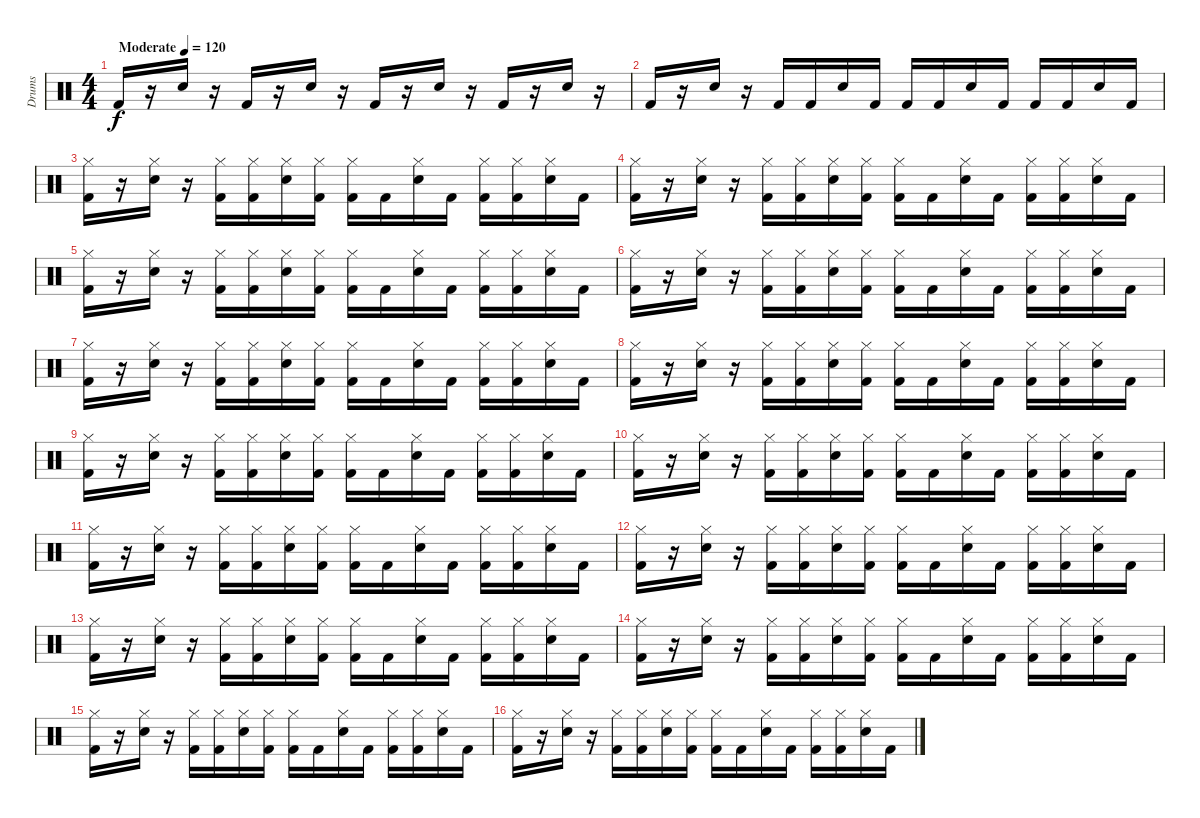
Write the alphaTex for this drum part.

\track ("Drums" "Drums") {instrument percussion}
\staff {score}
\articulation defaults
\ts (4 4)
\tempo (120 "Moderate")
\clef neutral
\ks c "Kick (hit) 2".16{dy f}
r.16 "Snare (hit) 2".16 r.16 "Kick (hit) 2".16 r.16 "Snare (hit) 2".16 r.16 "Kick (hit) 2".16 r.16 "Snare (hit) 2".16 r.16 "Kick (hit) 2".16 r.16 "Snare (hit) 2".16 r.16 |
"Kick (hit) 2".16 r.16 "Snare (hit) 2".16 r.16 "Kick (hit) 2".16 "Kick (hit) 2".16 "Snare (hit) 2".16 "Kick (hit) 2".16 "Kick (hit) 2".16 "Kick (hit) 2".16 "Snare (hit) 2".16 "Kick (hit) 2".16 "Kick (hit) 2".16 "Kick (hit) 2".16 "Snare (hit) 2".16 "Kick (hit) 2".16 |
("Hi-Hat (closed)" "Kick (hit) 2").16 r.16 ("Hi-Hat (closed)" "Snare (hit) 2").16 r.16 ("Hi-Hat (closed)" "Kick (hit) 2").16 ("Hi-Hat (closed)" "Kick (hit) 2").16 ("Hi-Hat (closed)" "Snare (hit) 2").16 ("Hi-Hat (closed)" "Kick (hit) 2").16 ("Hi-Hat (closed)" "Kick (hit) 2").16 "Kick (hit) 2".16 ("Hi-Hat (closed)" "Snare (hit) 2").16 "Kick (hit) 2".16 ("Hi-Hat (closed)" "Kick (hit) 2").16 ("Hi-Hat (closed)" "Kick (hit) 2").16 ("Hi-Hat (closed)" "Snare (hit) 2").16 "Kick (hit) 2".16 |
("Hi-Hat (closed)" "Kick (hit) 2").16 r.16 ("Hi-Hat (closed)" "Snare (hit) 2").16 r.16 ("Hi-Hat (closed)" "Kick (hit) 2").16 ("Hi-Hat (closed)" "Kick (hit) 2").16 ("Hi-Hat (closed)" "Snare (hit) 2").16 ("Hi-Hat (closed)" "Kick (hit) 2").16 ("Hi-Hat (closed)" "Kick (hit) 2").16 "Kick (hit) 2".16 ("Hi-Hat (closed)" "Snare (hit) 2").16 "Kick (hit) 2".16 ("Hi-Hat (closed)" "Kick (hit) 2").16 ("Hi-Hat (closed)" "Kick (hit) 2").16 ("Hi-Hat (closed)" "Snare (hit) 2").16 "Kick (hit) 2".16 |
("Hi-Hat (closed)" "Kick (hit) 2").16 r.16 ("Hi-Hat (closed)" "Snare (hit) 2").16 r.16 ("Hi-Hat (closed)" "Kick (hit) 2").16 ("Hi-Hat (closed)" "Kick (hit) 2").16 ("Hi-Hat (closed)" "Snare (hit) 2").16 ("Hi-Hat (closed)" "Kick (hit) 2").16 ("Hi-Hat (closed)" "Kick (hit) 2").16 "Kick (hit) 2".16 ("Hi-Hat (closed)" "Snare (hit) 2").16 "Kick (hit) 2".16 ("Hi-Hat (closed)" "Kick (hit) 2").16 ("Hi-Hat (closed)" "Kick (hit) 2").16 ("Hi-Hat (closed)" "Snare (hit) 2").16 "Kick (hit) 2".16 |
("Hi-Hat (closed)" "Kick (hit) 2").16 r.16 ("Hi-Hat (closed)" "Snare (hit) 2").16 r.16 ("Hi-Hat (closed)" "Kick (hit) 2").16 ("Hi-Hat (closed)" "Kick (hit) 2").16 ("Hi-Hat (closed)" "Snare (hit) 2").16 ("Hi-Hat (closed)" "Kick (hit) 2").16 ("Hi-Hat (closed)" "Kick (hit) 2").16 "Kick (hit) 2".16 ("Hi-Hat (closed)" "Snare (hit) 2").16 "Kick (hit) 2".16 ("Hi-Hat (closed)" "Kick (hit) 2").16 ("Hi-Hat (closed)" "Kick (hit) 2").16 ("Hi-Hat (closed)" "Snare (hit) 2").16 "Kick (hit) 2".16 |
("Hi-Hat (closed)" "Kick (hit) 2").16 r.16 ("Hi-Hat (closed)" "Snare (hit) 2").16 r.16 ("Hi-Hat (closed)" "Kick (hit) 2").16 ("Hi-Hat (closed)" "Kick (hit) 2").16 ("Hi-Hat (closed)" "Snare (hit) 2").16 ("Hi-Hat (closed)" "Kick (hit) 2").16 ("Hi-Hat (closed)" "Kick (hit) 2").16 "Kick (hit) 2".16 ("Hi-Hat (closed)" "Snare (hit) 2").16 "Kick (hit) 2".16 ("Hi-Hat (closed)" "Kick (hit) 2").16 ("Hi-Hat (closed)" "Kick (hit) 2").16 ("Hi-Hat (closed)" "Snare (hit) 2").16 "Kick (hit) 2".16 |
("Hi-Hat (closed)" "Kick (hit) 2").16 r.16 ("Hi-Hat (closed)" "Snare (hit) 2").16 r.16 ("Hi-Hat (closed)" "Kick (hit) 2").16 ("Hi-Hat (closed)" "Kick (hit) 2").16 ("Hi-Hat (closed)" "Snare (hit) 2").16 ("Hi-Hat (closed)" "Kick (hit) 2").16 ("Hi-Hat (closed)" "Kick (hit) 2").16 "Kick (hit) 2".16 ("Hi-Hat (closed)" "Snare (hit) 2").16 "Kick (hit) 2".16 ("Hi-Hat (closed)" "Kick (hit) 2").16 ("Hi-Hat (closed)" "Kick (hit) 2").16 ("Hi-Hat (closed)" "Snare (hit) 2").16 "Kick (hit) 2".16 |
("Hi-Hat (closed)" "Kick (hit) 2").16 r.16 ("Hi-Hat (closed)" "Snare (hit) 2").16 r.16 ("Hi-Hat (closed)" "Kick (hit) 2").16 ("Hi-Hat (closed)" "Kick (hit) 2").16 ("Hi-Hat (closed)" "Snare (hit) 2").16 ("Hi-Hat (closed)" "Kick (hit) 2").16 ("Hi-Hat (closed)" "Kick (hit) 2").16 "Kick (hit) 2".16 ("Hi-Hat (closed)" "Snare (hit) 2").16 "Kick (hit) 2".16 ("Hi-Hat (closed)" "Kick (hit) 2").16 ("Hi-Hat (closed)" "Kick (hit) 2").16 ("Hi-Hat (closed)" "Snare (hit) 2").16 "Kick (hit) 2".16 |
("Hi-Hat (closed)" "Kick (hit) 2").16 r.16 ("Hi-Hat (closed)" "Snare (hit) 2").16 r.16 ("Hi-Hat (closed)" "Kick (hit) 2").16 ("Hi-Hat (closed)" "Kick (hit) 2").16 ("Hi-Hat (closed)" "Snare (hit) 2").16 ("Hi-Hat (closed)" "Kick (hit) 2").16 ("Hi-Hat (closed)" "Kick (hit) 2").16 "Kick (hit) 2".16 ("Hi-Hat (closed)" "Snare (hit) 2").16 "Kick (hit) 2".16 ("Hi-Hat (closed)" "Kick (hit) 2").16 ("Hi-Hat (closed)" "Kick (hit) 2").16 ("Hi-Hat (closed)" "Snare (hit) 2").16 "Kick (hit) 2".16 |
("Hi-Hat (closed)" "Kick (hit) 2").16 r.16 ("Hi-Hat (closed)" "Snare (hit) 2").16 r.16 ("Hi-Hat (closed)" "Kick (hit) 2").16 ("Hi-Hat (closed)" "Kick (hit) 2").16 ("Hi-Hat (closed)" "Snare (hit) 2").16 ("Hi-Hat (closed)" "Kick (hit) 2").16 ("Hi-Hat (closed)" "Kick (hit) 2").16 "Kick (hit) 2".16 ("Hi-Hat (closed)" "Snare (hit) 2").16 "Kick (hit) 2".16 ("Hi-Hat (closed)" "Kick (hit) 2").16 ("Hi-Hat (closed)" "Kick (hit) 2").16 ("Hi-Hat (closed)" "Snare (hit) 2").16 "Kick (hit) 2".16 |
("Hi-Hat (closed)" "Kick (hit) 2").16 r.16 ("Hi-Hat (closed)" "Snare (hit) 2").16 r.16 ("Hi-Hat (closed)" "Kick (hit) 2").16 ("Hi-Hat (closed)" "Kick (hit) 2").16 ("Hi-Hat (closed)" "Snare (hit) 2").16 ("Hi-Hat (closed)" "Kick (hit) 2").16 ("Hi-Hat (closed)" "Kick (hit) 2").16 "Kick (hit) 2".16 ("Hi-Hat (closed)" "Snare (hit) 2").16 "Kick (hit) 2".16 ("Hi-Hat (closed)" "Kick (hit) 2").16 ("Hi-Hat (closed)" "Kick (hit) 2").16 ("Hi-Hat (closed)" "Snare (hit) 2").16 "Kick (hit) 2".16 |
("Hi-Hat (closed)" "Kick (hit) 2").16 r.16 ("Hi-Hat (closed)" "Snare (hit) 2").16 r.16 ("Hi-Hat (closed)" "Kick (hit) 2").16 ("Hi-Hat (closed)" "Kick (hit) 2").16 ("Hi-Hat (closed)" "Snare (hit) 2").16 ("Hi-Hat (closed)" "Kick (hit) 2").16 ("Hi-Hat (closed)" "Kick (hit) 2").16 "Kick (hit) 2".16 ("Hi-Hat (closed)" "Snare (hit) 2").16 "Kick (hit) 2".16 ("Hi-Hat (closed)" "Kick (hit) 2").16 ("Hi-Hat (closed)" "Kick (hit) 2").16 ("Hi-Hat (closed)" "Snare (hit) 2").16 "Kick (hit) 2".16 |
("Hi-Hat (closed)" "Kick (hit) 2").16 r.16 ("Hi-Hat (closed)" "Snare (hit) 2").16 r.16 ("Hi-Hat (closed)" "Kick (hit) 2").16 ("Hi-Hat (closed)" "Kick (hit) 2").16 ("Hi-Hat (closed)" "Snare (hit) 2").16 ("Hi-Hat (closed)" "Kick (hit) 2").16 ("Hi-Hat (closed)" "Kick (hit) 2").16 "Kick (hit) 2".16 ("Hi-Hat (closed)" "Snare (hit) 2").16 "Kick (hit) 2".16 ("Hi-Hat (closed)" "Kick (hit) 2").16 ("Hi-Hat (closed)" "Kick (hit) 2").16 ("Hi-Hat (closed)" "Snare (hit) 2").16 "Kick (hit) 2".16 |
("Hi-Hat (closed)" "Kick (hit) 2").16 r.16 ("Hi-Hat (closed)" "Snare (hit) 2").16 r.16 ("Hi-Hat (closed)" "Kick (hit) 2").16 ("Hi-Hat (closed)" "Kick (hit) 2").16 ("Hi-Hat (closed)" "Snare (hit) 2").16 ("Hi-Hat (closed)" "Kick (hit) 2").16 ("Hi-Hat (closed)" "Kick (hit) 2").16 "Kick (hit) 2".16 ("Hi-Hat (closed)" "Snare (hit) 2").16 "Kick (hit) 2".16 ("Hi-Hat (closed)" "Kick (hit) 2").16 ("Hi-Hat (closed)" "Kick (hit) 2").16 ("Hi-Hat (closed)" "Snare (hit) 2").16 "Kick (hit) 2".16 |
("Hi-Hat (closed)" "Kick (hit) 2").16 r.16 ("Hi-Hat (closed)" "Snare (hit) 2").16 r.16 ("Hi-Hat (closed)" "Kick (hit) 2").16 ("Hi-Hat (closed)" "Kick (hit) 2").16 ("Hi-Hat (closed)" "Snare (hit) 2").16 ("Hi-Hat (closed)" "Kick (hit) 2").16 ("Hi-Hat (closed)" "Kick (hit) 2").16 "Kick (hit) 2".16 ("Hi-Hat (closed)" "Snare (hit) 2").16 "Kick (hit) 2".16 ("Hi-Hat (closed)" "Kick (hit) 2").16 ("Hi-Hat (closed)" "Kick (hit) 2").16 ("Hi-Hat (closed)" "Snare (hit) 2").16 "Kick (hit) 2".16
